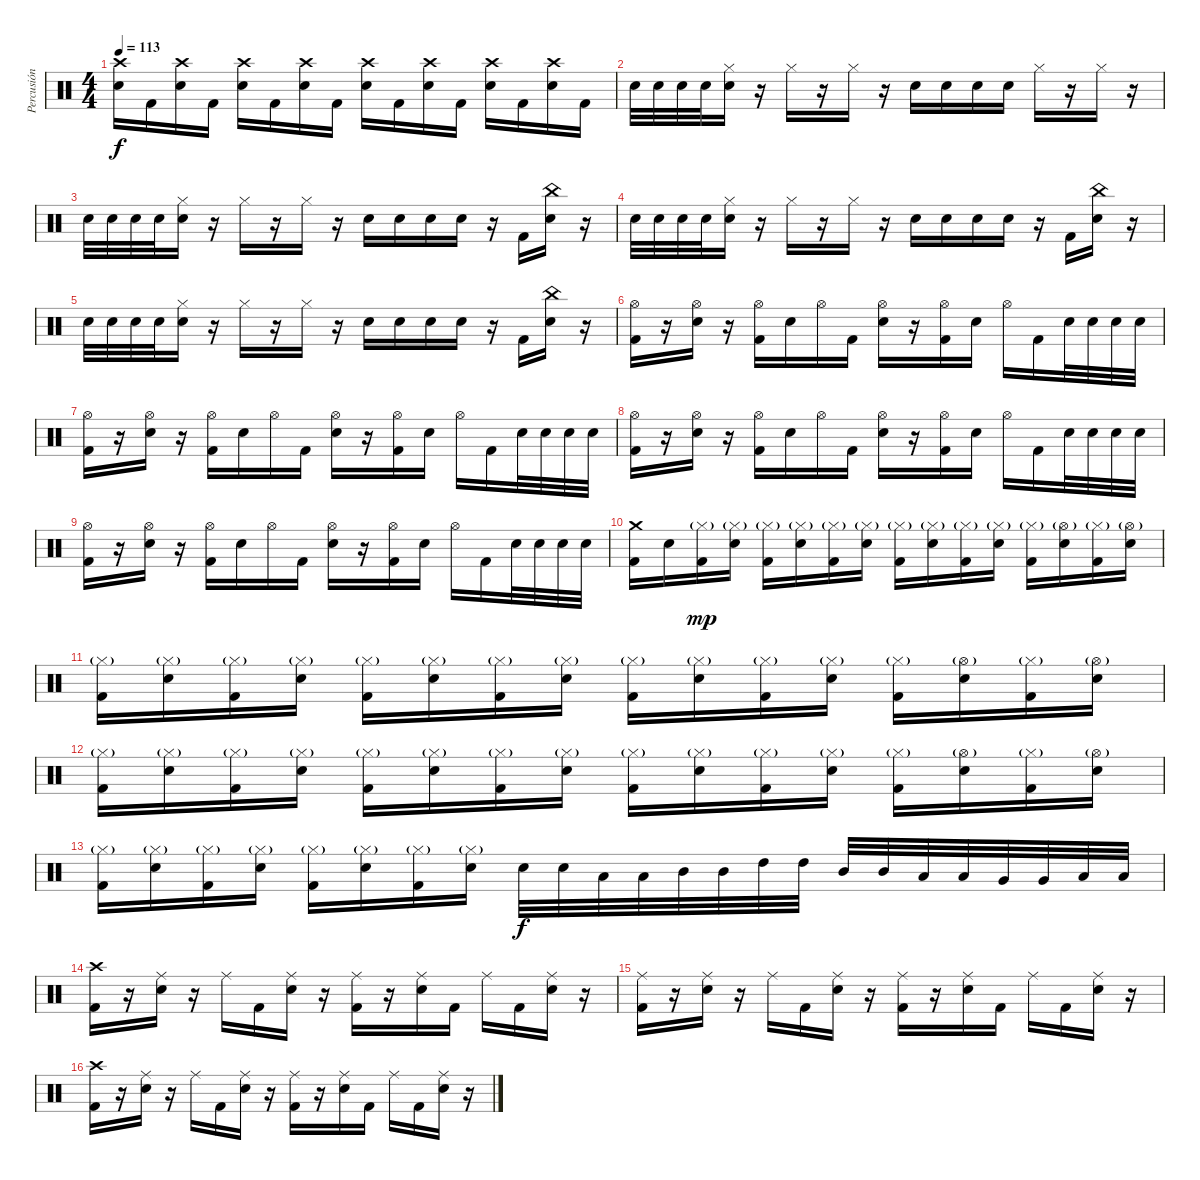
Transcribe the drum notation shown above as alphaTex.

\track ("Percusión" "Percusión") {instrument percussion}
\staff {score}
\articulation defaults
\ts (4 4)
\tempo 113
\clef neutral
\ks c
("Crash high (hit)" "Electric Snare (hit)").16{dy f} "Kick (hit) 2".16 ("Crash high (hit)" "Electric Snare (hit)").16 "Kick (hit) 2".16 ("Crash high (hit)" "Electric Snare (hit)").16 "Kick (hit) 2".16 ("Crash high (hit)" "Electric Snare (hit)").16 "Kick (hit) 2".16 ("Crash high (hit)" "Electric Snare (hit)").16 "Kick (hit) 2".16 ("Crash high (hit)" "Electric Snare (hit)").16 "Kick (hit) 2".16 ("Crash high (hit)" "Electric Snare (hit)").16 "Kick (hit) 2".16 ("Crash high (hit)" "Electric Snare (hit)").16 "Kick (hit) 2".16 |
"Electric Snare (hit)".32 "Electric Snare (hit)".32 "Electric Snare (hit)".32 "Electric Snare (hit)".32 ("Electric Snare (hit)" "Hi-Hat (closed)").16 r.16 "Hi-Hat (closed)".16 r.16 "Hi-Hat (closed)".16 r.16 "Electric Snare (hit)".16 "Electric Snare (hit)".16 "Electric Snare (hit)".16 "Electric Snare (hit)".16 "Hi-Hat (closed)".16 r.16 "Hi-Hat (closed)".16 r.16 |
"Electric Snare (hit)".32 "Electric Snare (hit)".32 "Electric Snare (hit)".32 "Electric Snare (hit)".32 ("Electric Snare (hit)" "Hi-Hat (closed)").16 r.16 "Hi-Hat (closed)".16 r.16 "Hi-Hat (closed)".16 r.16 "Electric Snare (hit)".16 "Electric Snare (hit)".16 "Electric Snare (hit)".16 "Electric Snare (hit)".16 r.16 "Kick (hit) 2".16 ("China (hit)" "Electric Snare (hit)").16 r.16 |
"Electric Snare (hit)".32 "Electric Snare (hit)".32 "Electric Snare (hit)".32 "Electric Snare (hit)".32 ("Electric Snare (hit)" "Hi-Hat (closed)").16 r.16 "Hi-Hat (closed)".16 r.16 "Hi-Hat (closed)".16 r.16 "Electric Snare (hit)".16 "Electric Snare (hit)".16 "Electric Snare (hit)".16 "Electric Snare (hit)".16 r.16 "Kick (hit) 2".16 ("China (hit)" "Electric Snare (hit)").16 r.16 |
"Electric Snare (hit)".32 "Electric Snare (hit)".32 "Electric Snare (hit)".32 "Electric Snare (hit)".32 ("Electric Snare (hit)" "Hi-Hat (closed)").16 r.16 "Hi-Hat (closed)".16 r.16 "Hi-Hat (closed)".16 r.16 "Electric Snare (hit)".16 "Electric Snare (hit)".16 "Electric Snare (hit)".16 "Electric Snare (hit)".16 r.16 "Kick (hit) 2".16 ("China (hit)" "Electric Snare (hit)").16 r.16 |
("Hi-Hat (open)" "Kick (hit) 2").16 r.16 ("Hi-Hat (open)" "Electric Snare (hit)").16 r.16 ("Hi-Hat (open)" "Kick (hit) 2").16 "Electric Snare (hit)".16 "Hi-Hat (open)".16 "Kick (hit) 2".16 ("Hi-Hat (open)" "Electric Snare (hit)").16 r.16 ("Hi-Hat (open)" "Kick (hit) 2").16 "Electric Snare (hit)".16 "Hi-Hat (open)".16 "Kick (hit) 2".16 "Electric Snare (hit)".32 "Electric Snare (hit)".32 "Electric Snare (hit)".32 "Electric Snare (hit)".32 |
("Hi-Hat (open)" "Kick (hit) 2").16 r.16 ("Hi-Hat (open)" "Electric Snare (hit)").16 r.16 ("Hi-Hat (open)" "Kick (hit) 2").16 "Electric Snare (hit)".16 "Hi-Hat (open)".16 "Kick (hit) 2".16 ("Hi-Hat (open)" "Electric Snare (hit)").16 r.16 ("Hi-Hat (open)" "Kick (hit) 2").16 "Electric Snare (hit)".16 "Hi-Hat (open)".16 "Kick (hit) 2".16 "Electric Snare (hit)".32 "Electric Snare (hit)".32 "Electric Snare (hit)".32 "Electric Snare (hit)".32 |
("Hi-Hat (open)" "Kick (hit) 2").16 r.16 ("Hi-Hat (open)" "Electric Snare (hit)").16 r.16 ("Hi-Hat (open)" "Kick (hit) 2").16 "Electric Snare (hit)".16 "Hi-Hat (open)".16 "Kick (hit) 2".16 ("Hi-Hat (open)" "Electric Snare (hit)").16 r.16 ("Hi-Hat (open)" "Kick (hit) 2").16 "Electric Snare (hit)".16 "Hi-Hat (open)".16 "Kick (hit) 2".16 "Electric Snare (hit)".32 "Electric Snare (hit)".32 "Electric Snare (hit)".32 "Electric Snare (hit)".32 |
("Hi-Hat (open)" "Kick (hit) 2").16 r.16 ("Hi-Hat (open)" "Electric Snare (hit)").16 r.16 ("Hi-Hat (open)" "Kick (hit) 2").16 "Electric Snare (hit)".16 "Hi-Hat (open)".16 "Kick (hit) 2".16 ("Hi-Hat (open)" "Electric Snare (hit)").16 r.16 ("Hi-Hat (open)" "Kick (hit) 2").16 "Electric Snare (hit)".16 "Hi-Hat (open)".16 "Kick (hit) 2".16 "Electric Snare (hit)".32 "Electric Snare (hit)".32 "Electric Snare (hit)".32 "Electric Snare (hit)".32 |
("Crash medium (hit)" "Kick (hit) 2").16 "Electric Snare (hit)".16 ("Hi-Hat (closed)"{g} "Kick (hit) 2").16{dy mp} ("Hi-Hat (closed)"{g} "Electric Snare (hit)").16 ("Hi-Hat (closed)"{g} "Kick (hit) 2").16 ("Hi-Hat (closed)"{g} "Electric Snare (hit)").16 ("Hi-Hat (closed)"{g} "Kick (hit) 2").16 ("Hi-Hat (closed)"{g} "Electric Snare (hit)").16 ("Hi-Hat (closed)"{g} "Kick (hit) 2").16 ("Hi-Hat (closed)"{g} "Electric Snare (hit)").16 ("Hi-Hat (closed)"{g} "Kick (hit) 2").16 ("Hi-Hat (closed)"{g} "Electric Snare (hit)").16 ("Hi-Hat (closed)"{g} "Kick (hit) 2").16 ("Hi-Hat (open)"{g} "Electric Snare (hit)").16 ("Hi-Hat (closed)"{g} "Kick (hit) 2").16 ("Hi-Hat (open)"{g} "Electric Snare (hit)").16 |
("Hi-Hat (closed)"{g} "Kick (hit) 2").16 ("Hi-Hat (closed)"{g} "Electric Snare (hit)").16 ("Hi-Hat (closed)"{g} "Kick (hit) 2").16 ("Hi-Hat (closed)"{g} "Electric Snare (hit)").16 ("Hi-Hat (closed)"{g} "Kick (hit) 2").16 ("Hi-Hat (closed)"{g} "Electric Snare (hit)").16 ("Hi-Hat (closed)"{g} "Kick (hit) 2").16 ("Hi-Hat (closed)"{g} "Electric Snare (hit)").16 ("Hi-Hat (closed)"{g} "Kick (hit) 2").16 ("Hi-Hat (closed)"{g} "Electric Snare (hit)").16 ("Hi-Hat (closed)"{g} "Kick (hit) 2").16 ("Hi-Hat (closed)"{g} "Electric Snare (hit)").16 ("Hi-Hat (closed)"{g} "Kick (hit) 2").16 ("Hi-Hat (open)"{g} "Electric Snare (hit)").16 ("Hi-Hat (closed)"{g} "Kick (hit) 2").16 ("Hi-Hat (open)"{g} "Electric Snare (hit)").16 |
("Hi-Hat (closed)"{g} "Kick (hit) 2").16 ("Hi-Hat (closed)"{g} "Electric Snare (hit)").16 ("Hi-Hat (closed)"{g} "Kick (hit) 2").16 ("Hi-Hat (closed)"{g} "Electric Snare (hit)").16 ("Hi-Hat (closed)"{g} "Kick (hit) 2").16 ("Hi-Hat (closed)"{g} "Electric Snare (hit)").16 ("Hi-Hat (closed)"{g} "Kick (hit) 2").16 ("Hi-Hat (closed)"{g} "Electric Snare (hit)").16 ("Hi-Hat (closed)"{g} "Kick (hit) 2").16 ("Hi-Hat (closed)"{g} "Electric Snare (hit)").16 ("Hi-Hat (closed)"{g} "Kick (hit) 2").16 ("Hi-Hat (closed)"{g} "Electric Snare (hit)").16 ("Hi-Hat (closed)"{g} "Kick (hit) 2").16 ("Hi-Hat (open)"{g} "Electric Snare (hit)").16 ("Hi-Hat (closed)"{g} "Kick (hit) 2").16 ("Hi-Hat (open)"{g} "Electric Snare (hit)").16 |
("Hi-Hat (closed)"{g} "Kick (hit) 2").16 ("Hi-Hat (closed)"{g} "Electric Snare (hit)").16 ("Hi-Hat (closed)"{g} "Kick (hit) 2").16 ("Hi-Hat (closed)"{g} "Electric Snare (hit)").16 ("Hi-Hat (closed)"{g} "Kick (hit) 2").16 ("Hi-Hat (closed)"{g} "Electric Snare (hit)").16 ("Hi-Hat (closed)"{g} "Kick (hit) 2").16 ("Hi-Hat (closed)"{g} "Electric Snare (hit)").16 "Electric Snare (hit)".32{dy f} "Electric Snare (hit)".32 "Low Tom (hit)".32 "Low Tom (hit)".32 "Mid Tom (hit)".32 "Mid Tom (hit)".32 "High Tom (hit)".32 "High Tom (hit)".32 "Mid Tom (hit)".32 "Mid Tom (hit)".32 "Low Tom (hit)".32 "Low Tom (hit)".32 "Very Low Tom (hit)".32 "Very Low Tom (hit)".32 "Low Floor Tom (hit)".32 "Low Floor Tom (hit)".32 |
("Crash high (hit)" "Kick (hit) 2").16 r.16 ("Ride (middle)" "Electric Snare (hit)").16 r.16 "Ride (middle)".16 "Kick (hit) 2".16 ("Ride (middle)" "Electric Snare (hit)").16 r.16 ("Ride (middle)" "Kick (hit) 2").16 r.16 ("Ride (middle)" "Electric Snare (hit)").16 "Kick (hit) 2".16 "Ride (middle)".16 "Kick (hit) 2".16 ("Ride (middle)" "Electric Snare (hit)").16 r.16 |
("Ride (middle)" "Kick (hit) 2").16 r.16 ("Ride (middle)" "Electric Snare (hit)").16 r.16 "Ride (middle)".16 "Kick (hit) 2".16 ("Ride (middle)" "Electric Snare (hit)").16 r.16 ("Ride (middle)" "Kick (hit) 2").16 r.16 ("Ride (middle)" "Electric Snare (hit)").16 "Kick (hit) 2".16 "Ride (middle)".16 "Kick (hit) 2".16 ("Ride (middle)" "Electric Snare (hit)").16 r.16 |
("Crash high (hit)" "Kick (hit) 2").16 r.16 ("Ride (middle)" "Electric Snare (hit)").16 r.16 "Ride (middle)".16 "Kick (hit) 2".16 ("Ride (middle)" "Electric Snare (hit)").16 r.16 ("Ride (middle)" "Kick (hit) 2").16 r.16 ("Ride (middle)" "Electric Snare (hit)").16 "Kick (hit) 2".16 "Ride (middle)".16 "Kick (hit) 2".16 ("Ride (middle)" "Electric Snare (hit)").16 r.16
